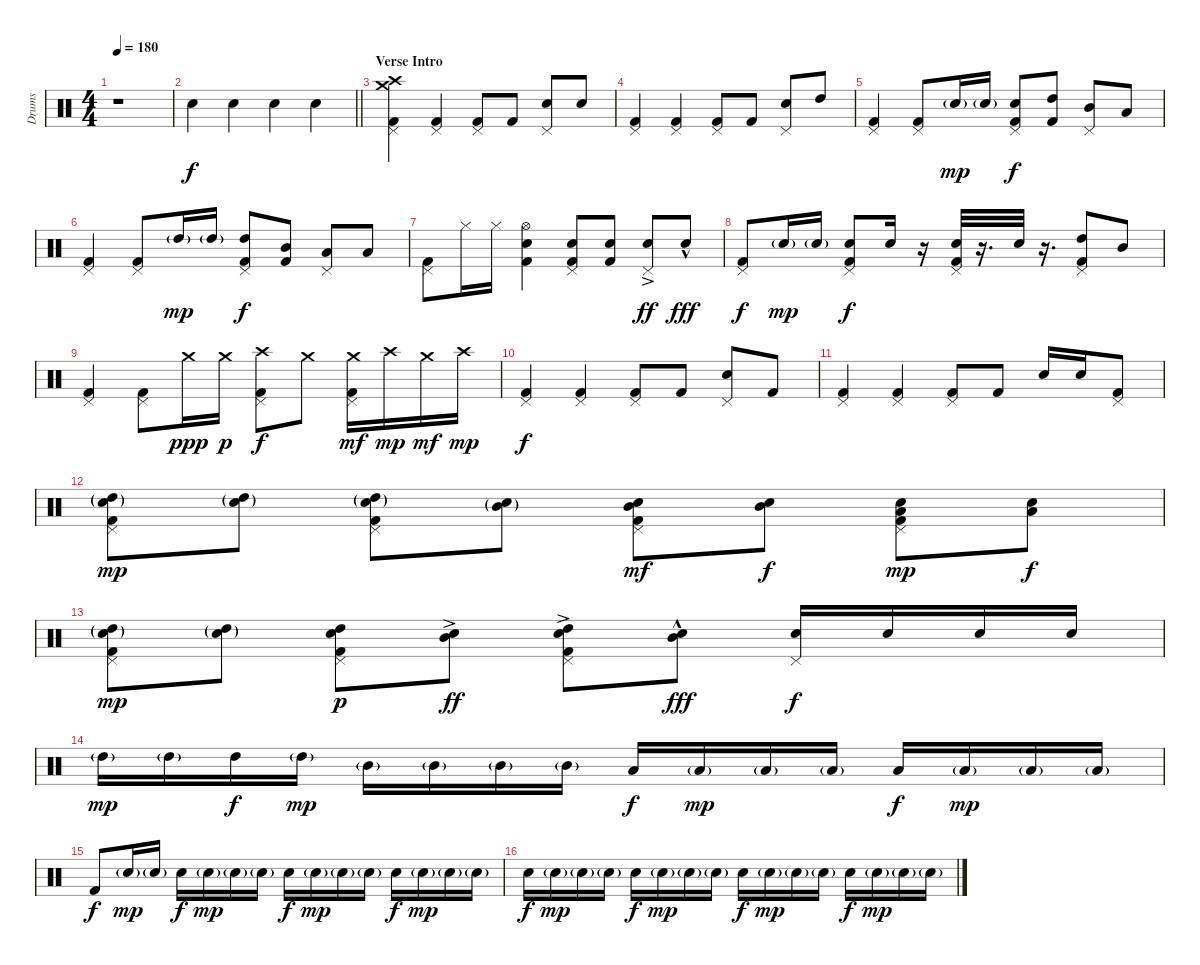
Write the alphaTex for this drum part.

\track ("Drums" "Drums") {instrument percussion}
\staff {score}
\articulation defaults
\ts (4 4)
\tempo 180
\clef neutral
\ks c
r.1{dy f} |
\barLineRight lightlight "Snare (hit) 2".4 "Snare (hit) 2".4 "Snare (hit) 2".4 "Snare (hit) 2".4
|
\section ("" "Verse Intro")
("Crash medium (hit)" "Crash high (hit)" "Pedal Hi-Hat (hit)" "Kick (hit) 2").4 ("Pedal Hi-Hat (hit)" "Kick (hit) 2").4 ("Pedal Hi-Hat (hit)" "Kick (hit) 2").8 "Kick (hit) 2".8 ("Pedal Hi-Hat (hit)" "Snare (hit) 2").8 "Snare (hit) 2".8 |
("Pedal Hi-Hat (hit)" "Kick (hit) 2").4 ("Pedal Hi-Hat (hit)" "Kick (hit) 2").4 ("Pedal Hi-Hat (hit)" "Kick (hit) 2").8 "Kick (hit) 2".8 ("Pedal Hi-Hat (hit)" "Snare (hit) 2").8 "High Tom (hit)".8 |
("Pedal Hi-Hat (hit)" "Kick (hit) 2").4 ("Pedal Hi-Hat (hit)" "Kick (hit) 2").8 "Snare (hit) 2"{g}.16{dy mp} "Snare (hit) 2"{g}.16 ("Pedal Hi-Hat (hit)" "Snare (hit) 2" "Kick (hit) 2").8{dy f} ("High Tom (hit)" "Kick (hit) 2").8 ("Pedal Hi-Hat (hit)" "Mid Tom (hit)").8 "Low Tom (hit)".8 |
("Pedal Hi-Hat (hit)" "Kick (hit) 2").4 ("Pedal Hi-Hat (hit)" "Kick (hit) 2").8 "High Tom (hit)"{g}.16{dy mp} "High Tom (hit)"{g}.16 ("Pedal Hi-Hat (hit)" "High Tom (hit)" "Kick (hit) 2").8{dy f} ("Mid Tom (hit)" "Kick (hit) 2").8 ("Pedal Hi-Hat (hit)" "Low Tom (hit)").8 "Low Tom (hit)".8 |
("Pedal Hi-Hat (hit)" "Kick (hit) 2").8 "Hi-Hat (closed)".16 "Hi-Hat (closed)".16 ("Hi-Hat (open)" "Snare (hit) 2" "Kick (hit) 2").4 ("Pedal Hi-Hat (hit)" "Snare (hit) 2" "Kick (hit) 2").8 ("Snare (hit) 2" "Kick (hit) 2").8 ("Pedal Hi-Hat (hit)" "Snare (hit) 2"{ac}).8{dy ff} "Snare (hit) 2"{hac}.8{dy fff} |
("Pedal Hi-Hat (hit)" "Kick (hit) 2").8{dy f} "Snare (hit) 2"{g}.16{dy mp} "Snare (hit) 2"{g}.16 ("Pedal Hi-Hat (hit)" "Snare (hit) 2" "Kick (hit) 2").8{dy f} "Snare (hit) 2".16 r.16 ("Pedal Hi-Hat (hit)" "Snare (hit) 2" "Kick (hit) 2").32 r.16{d} "Snare (hit) 2".32 r.16{d} ("Pedal Hi-Hat (hit)" "High Tom (hit)" "Kick (hit) 2").8 "Mid Tom (hit)".8 |
("Pedal Hi-Hat (hit)" "Kick (hit) 2").4 ("Pedal Hi-Hat (hit)" "Kick (hit) 2").8 "Crash medium (hit)".16{dy ppp} "Crash medium (hit)".16{dy p} ("Crash high (hit)" "Pedal Hi-Hat (hit)" "Kick (hit) 2").8{dy f} "Crash medium (hit)".8 ("Crash medium (hit)" "Pedal Hi-Hat (hit)" "Kick (hit) 2").16{dy mf} "Crash high (hit)".16{dy mp} "Crash medium (hit)".16{dy mf} "Crash high (hit)".16{dy mp} |
("Pedal Hi-Hat (hit)" "Kick (hit) 2").4{dy f} ("Pedal Hi-Hat (hit)" "Kick (hit) 2").4 ("Pedal Hi-Hat (hit)" "Kick (hit) 2").8 "Kick (hit) 2".8 ("Pedal Hi-Hat (hit)" "Snare (hit) 2").8 "Kick (hit) 2".8 |
("Pedal Hi-Hat (hit)" "Kick (hit) 2").4 ("Pedal Hi-Hat (hit)" "Kick (hit) 2").4 ("Pedal Hi-Hat (hit)" "Kick (hit) 2").8 "Kick (hit) 2".8 "Snare (hit) 2".16 "Snare (hit) 2".16 ("Pedal Hi-Hat (hit)" "Kick (hit) 2").8 |
("Pedal Hi-Hat (hit)" "Snare (hit) 2"{g} "High Tom (hit)"{g} "Kick (hit) 2").8{dy mp} ("Snare (hit) 2"{g} "High Tom (hit)"{g}).8 ("Pedal Hi-Hat (hit)" "Snare (hit) 2"{g} "High Tom (hit)"{g} "Kick (hit) 2").8 ("Snare (hit) 2"{g} "Mid Tom (hit)"{g}).8 ("Pedal Hi-Hat (hit)" "Snare (hit) 2" "Mid Tom (hit)" "Kick (hit) 2").8{dy mf} ("Snare (hit) 2" "Mid Tom (hit)").8{dy f} ("Pedal Hi-Hat (hit)" "Snare (hit) 2" "Low Tom (hit)" "Kick (hit) 2").8{dy mp} ("Snare (hit) 2" "Low Tom (hit)").8{dy f} |
("Pedal Hi-Hat (hit)" "Snare (hit) 2"{g} "High Tom (hit)"{g} "Kick (hit) 2").8{dy mp} ("Snare (hit) 2"{g} "High Tom (hit)"{g}).8 ("Pedal Hi-Hat (hit)" "Snare (hit) 2" "High Tom (hit)" "Kick (hit) 2").8{dy p} ("Snare (hit) 2"{ac} "Mid Tom (hit)"{ac}).8{dy ff} ("Pedal Hi-Hat (hit)" "Snare (hit) 2"{ac} "High Tom (hit)"{ac} "Kick (hit) 2").8 ("Snare (hit) 2"{hac} "Mid Tom (hit)"{hac}).8{dy fff} ("Pedal Hi-Hat (hit)" "Snare (hit) 2").16{dy f} "Snare (hit) 2".16 "Snare (hit) 2".16 "Snare (hit) 2".16 |
"High Tom (hit)"{g}.16{dy mp} "High Tom (hit)"{g}.16 "High Tom (hit)".16{dy f} "High Tom (hit)"{g}.16{dy mp} "Mid Tom (hit)"{g}.16 "Mid Tom (hit)"{g}.16 "Mid Tom (hit)"{g}.16 "Mid Tom (hit)"{g}.16 "Low Tom (hit)".16{dy f} "Low Tom (hit)"{g}.16{dy mp} "Low Tom (hit)"{g}.16 "Low Tom (hit)"{g}.16 "Low Tom (hit)".16{dy f} "Low Tom (hit)"{g}.16{dy mp} "Low Tom (hit)"{g}.16 "Low Tom (hit)"{g}.16 |
"Kick (hit) 2".8{dy f} "Snare (hit) 2"{g}.16{dy mp} "Snare (hit) 2"{g}.16 "Snare (hit) 2".16{dy f} "Snare (hit) 2"{g}.16{dy mp} "Snare (hit) 2"{g}.16 "Snare (hit) 2"{g}.16 "Snare (hit) 2".16{dy f} "Snare (hit) 2"{g}.16{dy mp} "Snare (hit) 2"{g}.16 "Snare (hit) 2"{g}.16 "Snare (hit) 2".16{dy f} "Snare (hit) 2"{g}.16{dy mp} "Snare (hit) 2"{g}.16 "Snare (hit) 2"{g}.16 |
"Snare (hit) 2".16{dy f} "Snare (hit) 2"{g}.16{dy mp} "Snare (hit) 2"{g}.16 "Snare (hit) 2"{g}.16 "Snare (hit) 2".16{dy f} "Snare (hit) 2"{g}.16{dy mp} "Snare (hit) 2"{g}.16 "Snare (hit) 2"{g}.16 "Snare (hit) 2".16{dy f} "Snare (hit) 2"{g}.16{dy mp} "Snare (hit) 2"{g}.16 "Snare (hit) 2"{g}.16 "Snare (hit) 2".16{dy f} "Snare (hit) 2"{g}.16{dy mp} "Snare (hit) 2"{g}.16 "Snare (hit) 2"{g}.16
